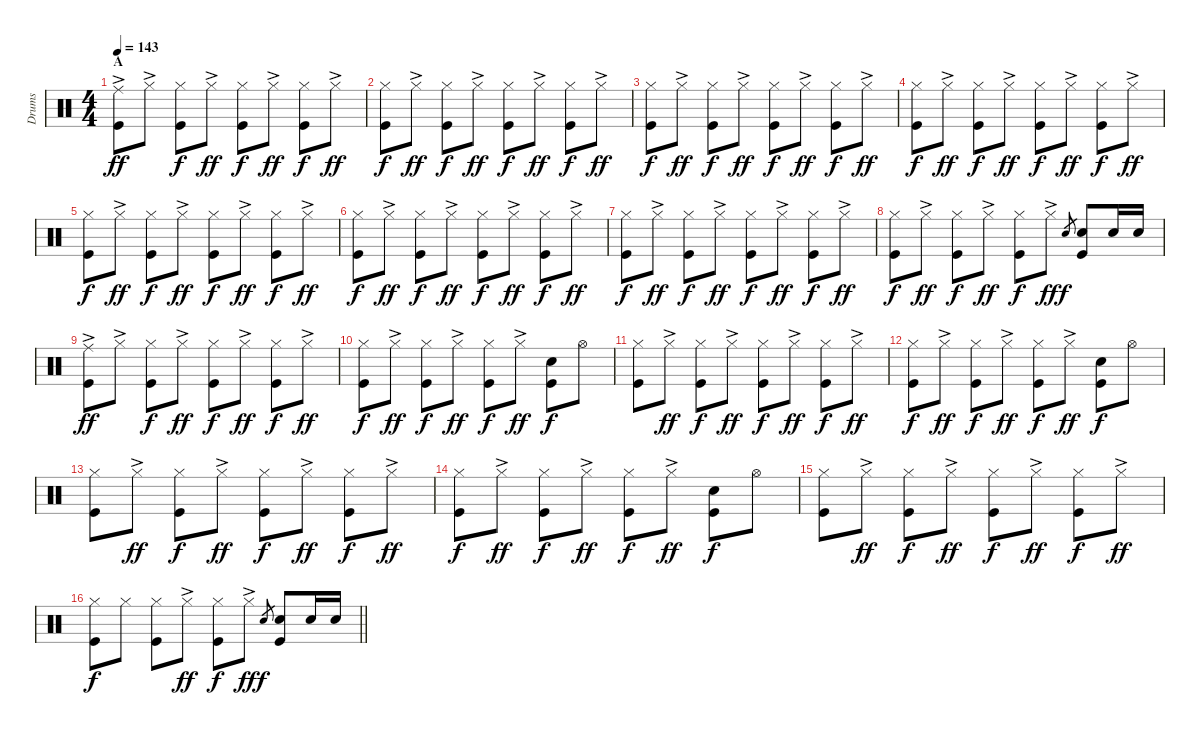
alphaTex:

\track ("Drums" "Drums") {instrument percussion}
\staff {score}
\articulation defaults
\ts (4 4)
\section ("" "A")
\tempo 143
\clef neutral
\ks c
("Ride (middle)"{ac} "Kick (hit)").8{dy ff} "Hi-Hat (closed)"{ac}.8 ("Hi-Hat (closed)" "Kick (hit)").8{dy f} "Hi-Hat (closed)"{ac}.8{dy ff} ("Hi-Hat (closed)" "Kick (hit)").8{dy f} "Hi-Hat (closed)"{ac}.8{dy ff} ("Hi-Hat (closed)" "Kick (hit)").8{dy f} "Hi-Hat (closed)"{ac}.8{dy ff} |
("Hi-Hat (closed)" "Kick (hit)").8{dy f} "Hi-Hat (closed)"{ac}.8{dy ff} ("Hi-Hat (closed)" "Kick (hit)").8{dy f} "Hi-Hat (closed)"{ac}.8{dy ff} ("Hi-Hat (closed)" "Kick (hit)").8{dy f} "Hi-Hat (closed)"{ac}.8{dy ff} ("Hi-Hat (closed)" "Kick (hit)").8{dy f} "Hi-Hat (closed)"{ac}.8{dy ff} |
("Hi-Hat (closed)" "Kick (hit)").8{dy f} "Hi-Hat (closed)"{ac}.8{dy ff} ("Hi-Hat (closed)" "Kick (hit)").8{dy f} "Hi-Hat (closed)"{ac}.8{dy ff} ("Hi-Hat (closed)" "Kick (hit)").8{dy f} "Hi-Hat (closed)"{ac}.8{dy ff} ("Hi-Hat (closed)" "Kick (hit)").8{dy f} "Hi-Hat (closed)"{ac}.8{dy ff} |
("Hi-Hat (closed)" "Kick (hit)").8{dy f} "Hi-Hat (closed)"{ac}.8{dy ff} ("Hi-Hat (closed)" "Kick (hit)").8{dy f} "Hi-Hat (closed)"{ac}.8{dy ff} ("Hi-Hat (closed)" "Kick (hit)").8{dy f} "Hi-Hat (closed)"{ac}.8{dy ff} ("Hi-Hat (closed)" "Kick (hit)").8{dy f} "Hi-Hat (closed)"{ac}.8{dy ff} |
("Hi-Hat (closed)" "Kick (hit)").8{dy f} "Hi-Hat (closed)"{ac}.8{dy ff} ("Hi-Hat (closed)" "Kick (hit)").8{dy f} "Hi-Hat (closed)"{ac}.8{dy ff} ("Hi-Hat (closed)" "Kick (hit)").8{dy f} "Hi-Hat (closed)"{ac}.8{dy ff} ("Hi-Hat (closed)" "Kick (hit)").8{dy f} "Hi-Hat (closed)"{ac}.8{dy ff} |
("Hi-Hat (closed)" "Kick (hit)").8{dy f} "Hi-Hat (closed)"{ac}.8{dy ff} ("Hi-Hat (closed)" "Kick (hit)").8{dy f} "Hi-Hat (closed)"{ac}.8{dy ff} ("Hi-Hat (closed)" "Kick (hit)").8{dy f} "Hi-Hat (closed)"{ac}.8{dy ff} ("Hi-Hat (closed)" "Kick (hit)").8{dy f} "Hi-Hat (closed)"{ac}.8{dy ff} |
("Hi-Hat (closed)" "Kick (hit)").8{dy f} "Hi-Hat (closed)"{ac}.8{dy ff} ("Hi-Hat (closed)" "Kick (hit)").8{dy f} "Hi-Hat (closed)"{ac}.8{dy ff} ("Hi-Hat (closed)" "Kick (hit)").8{dy f} "Hi-Hat (closed)"{ac}.8{dy ff} ("Hi-Hat (closed)" "Kick (hit)").8{dy f} "Hi-Hat (closed)"{ac}.8{dy ff} |
("Hi-Hat (closed)" "Kick (hit)").8{dy f} "Hi-Hat (closed)"{ac}.8{dy ff} ("Hi-Hat (closed)" "Kick (hit)").8{dy f} "Hi-Hat (closed)"{ac}.8{dy ff} ("Hi-Hat (closed)" "Kick (hit)").8{dy f} "Hi-Hat (closed)"{ac}.8{dy ff} "Snare (hit) 2".8{gr dy f} ("Snare (hit) 2" "Kick (hit)").8 "Snare (hit) 2".16 "Snare (hit) 2".16 |
("Ride (middle)"{ac} "Kick (hit)").8{dy ff} "Hi-Hat (closed)"{ac}.8 ("Hi-Hat (closed)" "Kick (hit)").8{dy f} "Hi-Hat (closed)"{ac}.8{dy ff} ("Hi-Hat (closed)" "Kick (hit)").8{dy f} "Hi-Hat (closed)"{ac}.8{dy ff} ("Hi-Hat (closed)" "Kick (hit)").8{dy f} "Hi-Hat (closed)"{ac}.8{dy ff} |
("Hi-Hat (closed)" "Kick (hit)").8{dy f} "Hi-Hat (closed)"{ac}.8{dy ff} ("Hi-Hat (closed)" "Kick (hit)").8{dy f} "Hi-Hat (closed)"{ac}.8{dy ff} ("Hi-Hat (closed)" "Kick (hit)").8{dy f} "Hi-Hat (closed)"{ac}.8{dy ff} ("Snare (hit) 2" "Kick (hit)").8{dy f} "Hi-Hat (open)".8 |
("Hi-Hat (closed)" "Kick (hit)").8 "Hi-Hat (closed)"{ac}.8{dy ff} ("Hi-Hat (closed)" "Kick (hit)").8{dy f} "Hi-Hat (closed)"{ac}.8{dy ff} ("Hi-Hat (closed)" "Kick (hit)").8{dy f} "Hi-Hat (closed)"{ac}.8{dy ff} ("Hi-Hat (closed)" "Kick (hit)").8{dy f} "Hi-Hat (closed)"{ac}.8{dy ff} |
("Hi-Hat (closed)" "Kick (hit)").8{dy f} "Hi-Hat (closed)"{ac}.8{dy ff} ("Hi-Hat (closed)" "Kick (hit)").8{dy f} "Hi-Hat (closed)"{ac}.8{dy ff} ("Hi-Hat (closed)" "Kick (hit)").8{dy f} "Hi-Hat (closed)"{ac}.8{dy ff} ("Snare (hit) 2" "Kick (hit)").8{dy f} "Hi-Hat (open)".8 |
("Hi-Hat (closed)" "Kick (hit)").8 "Hi-Hat (closed)"{ac}.8{dy ff} ("Hi-Hat (closed)" "Kick (hit)").8{dy f} "Hi-Hat (closed)"{ac}.8{dy ff} ("Hi-Hat (closed)" "Kick (hit)").8{dy f} "Hi-Hat (closed)"{ac}.8{dy ff} ("Hi-Hat (closed)" "Kick (hit)").8{dy f} "Hi-Hat (closed)"{ac}.8{dy ff} |
("Hi-Hat (closed)" "Kick (hit)").8{dy f} "Hi-Hat (closed)"{ac}.8{dy ff} ("Hi-Hat (closed)" "Kick (hit)").8{dy f} "Hi-Hat (closed)"{ac}.8{dy ff} ("Hi-Hat (closed)" "Kick (hit)").8{dy f} "Hi-Hat (closed)"{ac}.8{dy ff} ("Snare (hit) 2" "Kick (hit)").8{dy f} "Hi-Hat (open)".8 |
("Hi-Hat (closed)" "Kick (hit)").8 "Hi-Hat (closed)"{ac}.8{dy ff} ("Hi-Hat (closed)" "Kick (hit)").8{dy f} "Hi-Hat (closed)"{ac}.8{dy ff} ("Hi-Hat (closed)" "Kick (hit)").8{dy f} "Hi-Hat (closed)"{ac}.8{dy ff} ("Hi-Hat (closed)" "Kick (hit)").8{dy f} "Hi-Hat (closed)"{ac}.8{dy ff} |
\barLineRight lightlight
("Hi-Hat (closed)" "Kick (hit)").8{dy f} "Hi-Hat (closed)".8 ("Hi-Hat (closed)" "Kick (hit)").8 "Hi-Hat (closed)"{ac}.8{dy ff} ("Hi-Hat (closed)" "Kick (hit)").8{dy f} "Hi-Hat (closed)"{ac}.8{dy ff} "Snare (hit) 2".8{gr dy f} ("Kick (hit)" "Snare (hit) 2").8 "Snare (hit) 2".16 "Snare (hit) 2".16
